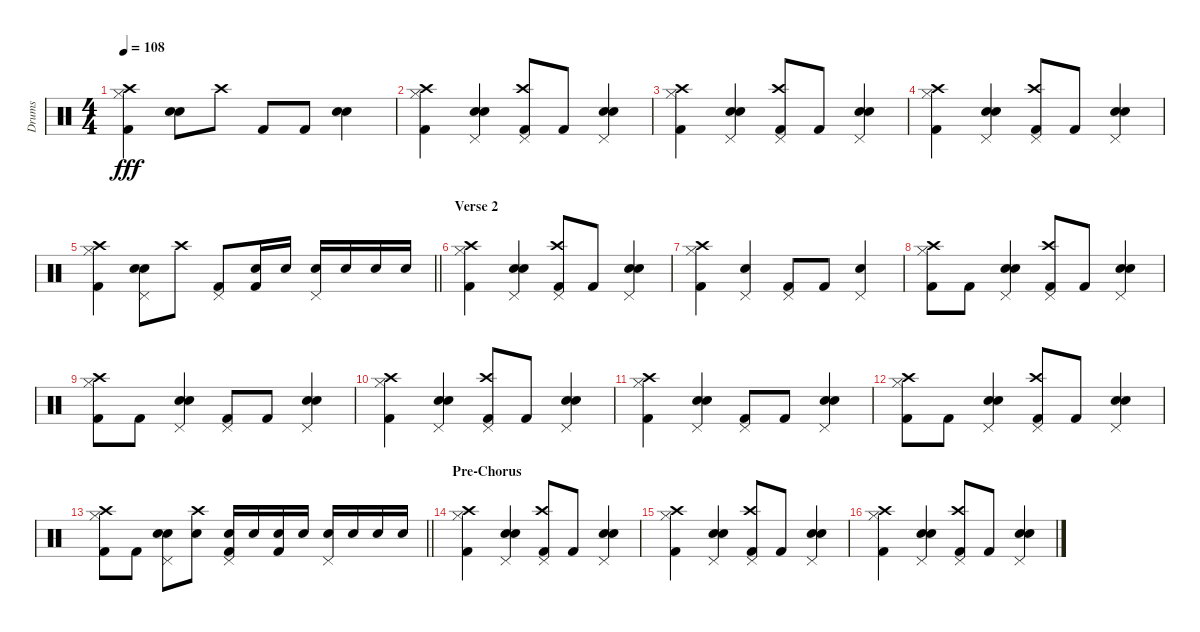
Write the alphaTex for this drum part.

\track ("Drums" "Drums") {instrument percussion}
\staff {score}
\articulation defaults
\ts (4 4)
\tempo 108
\clef neutral
\ks c
("Hi-Hat (closed)" "Kick (hit) 2" "Crash high (hit)").4{dy fff} ("Electric Snare (hit)" "Snare (hit) 2").8 "Crash high (hit)".8 "Kick (hit) 2".8 "Kick (hit) 2".8 ("Electric Snare (hit)" "Snare (hit) 2").4 |
("Hi-Hat (closed)" "Kick (hit) 2" "Crash high (hit)").4 ("Electric Snare (hit)" "Pedal Hi-Hat (hit)" "Snare (hit) 2").4 ("Pedal Hi-Hat (hit)" "Kick (hit) 2" "Crash high (hit)").8 "Kick (hit) 2".8 ("Electric Snare (hit)" "Pedal Hi-Hat (hit)" "Snare (hit) 2").4 |
("Hi-Hat (closed)" "Kick (hit) 2" "Crash high (hit)").4 ("Electric Snare (hit)" "Pedal Hi-Hat (hit)" "Snare (hit) 2").4 ("Pedal Hi-Hat (hit)" "Kick (hit) 2" "Crash high (hit)").8 "Kick (hit) 2".8 ("Electric Snare (hit)" "Pedal Hi-Hat (hit)" "Snare (hit) 2").4 |
("Hi-Hat (closed)" "Kick (hit) 2" "Crash high (hit)").4 ("Electric Snare (hit)" "Pedal Hi-Hat (hit)" "Snare (hit) 2").4 ("Pedal Hi-Hat (hit)" "Kick (hit) 2" "Crash high (hit)").8 "Kick (hit) 2".8 ("Electric Snare (hit)" "Pedal Hi-Hat (hit)" "Snare (hit) 2").4 |
\barLineRight lightlight
("Hi-Hat (closed)" "Kick (hit) 2" "Crash high (hit)").4 ("Electric Snare (hit)" "Pedal Hi-Hat (hit)" "Snare (hit) 2").8 "Crash high (hit)".8 ("Pedal Hi-Hat (hit)" "Kick (hit) 2").8 ("Kick (hit) 2" "Snare (hit) 2").16 "Snare (hit) 2".16 ("Pedal Hi-Hat (hit)" "Electric Snare (hit)").16 "Electric Snare (hit)".16 "Electric Snare (hit)".16 "Electric Snare (hit)".16 |
\section ("" "Verse 2")
("Hi-Hat (closed)" "Kick (hit) 2" "Crash high (hit)").4 ("Electric Snare (hit)" "Pedal Hi-Hat (hit)" "Snare (hit) 2").4 ("Pedal Hi-Hat (hit)" "Kick (hit) 2" "Crash high (hit)").8 "Kick (hit) 2".8 ("Electric Snare (hit)" "Pedal Hi-Hat (hit)" "Snare (hit) 2").4 |
("Hi-Hat (closed)" "Kick (hit) 2" "Crash high (hit)").4 ("Electric Snare (hit)" "Pedal Hi-Hat (hit)").4 ("Pedal Hi-Hat (hit)" "Kick (hit) 2").8 "Kick (hit) 2".8 ("Electric Snare (hit)" "Pedal Hi-Hat (hit)").4 |
("Hi-Hat (closed)" "Kick (hit) 2" "Crash high (hit)").8 "Kick (hit) 2".8 ("Electric Snare (hit)" "Pedal Hi-Hat (hit)" "Snare (hit) 2").4 ("Pedal Hi-Hat (hit)" "Kick (hit) 2" "Crash high (hit)").8 "Kick (hit) 2".8 ("Electric Snare (hit)" "Pedal Hi-Hat (hit)" "Snare (hit) 2").4 |
("Hi-Hat (closed)" "Kick (hit) 2" "Crash high (hit)").8 "Kick (hit) 2".8 ("Electric Snare (hit)" "Pedal Hi-Hat (hit)" "Snare (hit) 2").4 ("Pedal Hi-Hat (hit)" "Kick (hit) 2").8 "Kick (hit) 2".8 ("Electric Snare (hit)" "Pedal Hi-Hat (hit)" "Snare (hit) 2").4 |
("Hi-Hat (closed)" "Kick (hit) 2" "Crash high (hit)").4 ("Electric Snare (hit)" "Pedal Hi-Hat (hit)" "Snare (hit) 2").4 ("Pedal Hi-Hat (hit)" "Kick (hit) 2" "Crash high (hit)").8 "Kick (hit) 2".8 ("Electric Snare (hit)" "Pedal Hi-Hat (hit)" "Snare (hit) 2").4 |
("Hi-Hat (closed)" "Kick (hit) 2" "Crash high (hit)").4 ("Electric Snare (hit)" "Pedal Hi-Hat (hit)" "Snare (hit) 2").4 ("Pedal Hi-Hat (hit)" "Kick (hit) 2").8 "Kick (hit) 2".8 ("Electric Snare (hit)" "Pedal Hi-Hat (hit)" "Snare (hit) 2").4 |
("Hi-Hat (closed)" "Kick (hit) 2" "Crash high (hit)").8 "Kick (hit) 2".8 ("Electric Snare (hit)" "Pedal Hi-Hat (hit)" "Snare (hit) 2").4 ("Pedal Hi-Hat (hit)" "Kick (hit) 2" "Crash high (hit)").8 "Kick (hit) 2".8 ("Electric Snare (hit)" "Pedal Hi-Hat (hit)" "Snare (hit) 2").4 |
\barLineRight lightlight
("Hi-Hat (closed)" "Kick (hit) 2" "Crash high (hit)").8 "Kick (hit) 2".8 ("Electric Snare (hit)" "Pedal Hi-Hat (hit)" "Snare (hit) 2").8 ("Crash high (hit)" "Snare (hit) 2").8 ("Pedal Hi-Hat (hit)" "Kick (hit) 2" "Snare (hit) 2").16 "Snare (hit) 2".16 ("Kick (hit) 2" "Snare (hit) 2").16 "Snare (hit) 2".16 ("Pedal Hi-Hat (hit)" "Electric Snare (hit)").16 "Electric Snare (hit)".16 "Snare (hit) 2".16 "Snare (hit) 2".16 |
\section ("" "Pre-Chorus")
("Hi-Hat (closed)" "Kick (hit) 2" "Crash high (hit)").4 ("Electric Snare (hit)" "Pedal Hi-Hat (hit)" "Snare (hit) 2").4 ("Pedal Hi-Hat (hit)" "Kick (hit) 2" "Crash high (hit)").8 "Kick (hit) 2".8 ("Electric Snare (hit)" "Pedal Hi-Hat (hit)" "Snare (hit) 2").4 |
("Hi-Hat (closed)" "Kick (hit) 2" "Crash high (hit)").4 ("Electric Snare (hit)" "Pedal Hi-Hat (hit)" "Snare (hit) 2").4 ("Pedal Hi-Hat (hit)" "Kick (hit) 2" "Crash high (hit)").8 "Kick (hit) 2".8 ("Electric Snare (hit)" "Pedal Hi-Hat (hit)" "Snare (hit) 2").4 |
("Hi-Hat (closed)" "Kick (hit) 2" "Crash high (hit)").4 ("Electric Snare (hit)" "Pedal Hi-Hat (hit)" "Snare (hit) 2").4 ("Pedal Hi-Hat (hit)" "Kick (hit) 2" "Crash high (hit)").8 "Kick (hit) 2".8 ("Electric Snare (hit)" "Pedal Hi-Hat (hit)" "Snare (hit) 2").4
